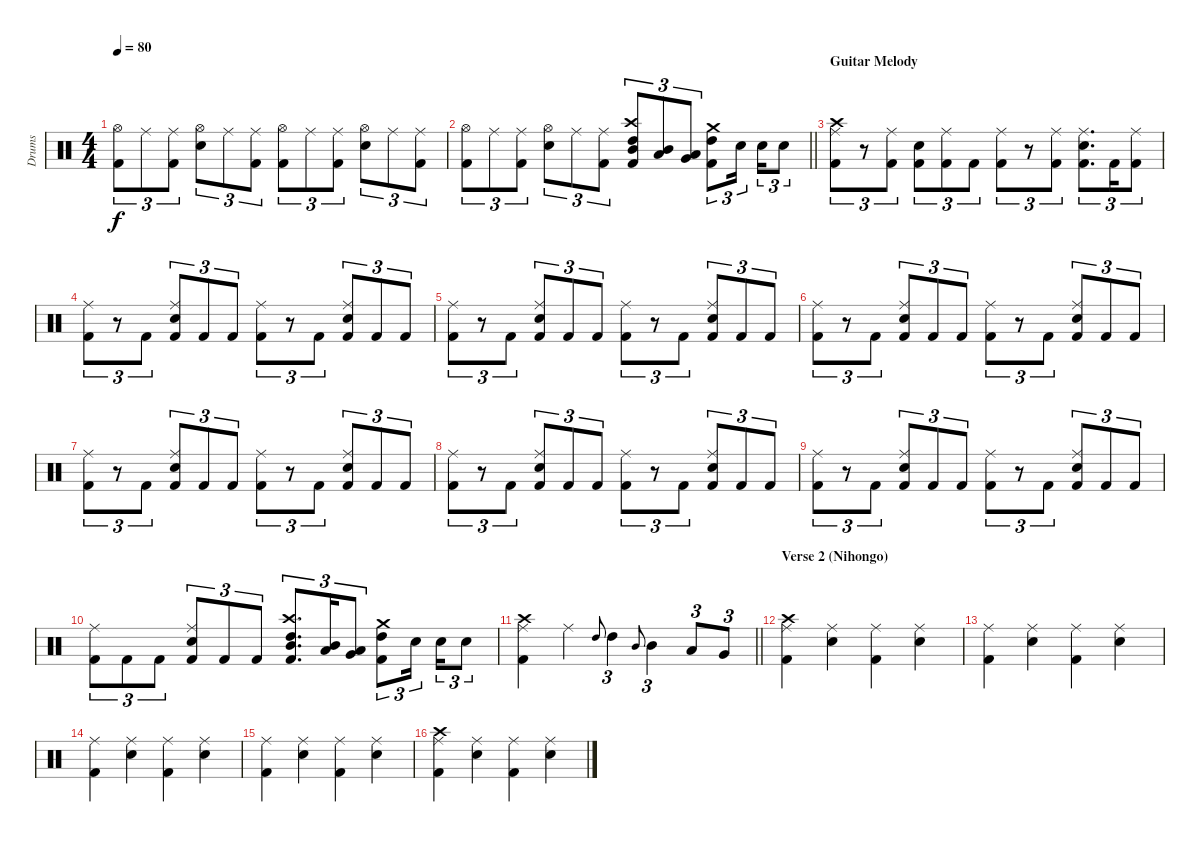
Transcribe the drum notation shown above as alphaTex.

\track ("Drums" "Drums") {instrument percussion}
\staff {score}
\articulation defaults
\ts (4 4)
\tempo 80
\clef neutral
\ks c
("Hi-Hat (open)" "Kick (hit) 2").8{tu (3 2) dy f} "Ride (middle)".8{tu (3 2)} ("Ride (middle)" "Kick (hit) 2").8{tu (3 2)} ("Hi-Hat (open)" "Snare (hit) 2").8{tu (3 2)} "Ride (middle)".8{tu (3 2)} ("Ride (middle)" "Kick (hit) 2").8{tu (3 2)} ("Hi-Hat (open)" "Kick (hit) 2").8{tu (3 2)} "Ride (middle)".8{tu (3 2)} ("Ride (middle)" "Kick (hit) 2").8{tu (3 2)} ("Hi-Hat (open)" "Snare (hit) 2").8{tu (3 2)} "Ride (middle)".8{tu (3 2)} ("Ride (middle)" "Kick (hit) 2").8{tu (3 2)} |
\barLineRight lightlight
("Hi-Hat (open)" "Kick (hit) 2").8{tu (3 2)} "Ride (middle)".8{tu (3 2)} ("Ride (middle)" "Kick (hit) 2").8{tu (3 2)} ("Hi-Hat (open)" "Snare (hit) 2").8{tu (3 2)} "Ride (middle)".8{tu (3 2)} ("Ride (middle)" "Kick (hit) 2").8{tu (3 2)} ("Crash high (hit)" "High Tom (hit)" "Mid Tom (hit)" "Kick (hit) 2").8{tu (3 2)} ("Mid Tom (hit)" "Low Tom (hit)").8{tu (3 2)} ("Low Tom (hit)" "Very Low Tom (hit)").8{tu (3 2)} ("Crash medium (hit)" "High Tom (hit)" "Kick (hit) 2").8{tu (3 2)} "Snare (hit) 2".16{tu (3 2) beam splitsecondary} "Snare (hit) 2".16{tu (3 2)} "Snare (hit) 2".8{tu (3 2)} |
\section ("" "Guitar Melody")
("Crash high (hit)" "Ride (middle)" "Kick (hit) 2").8{tu (3 2)} r.8{tu (3 2)} ("Ride (middle)" "Kick (hit) 2").8{tu (3 2)} ("Snare (hit) 2" "Kick (hit) 2").8{tu (3 2)} ("Ride (middle)" "Kick (hit) 2").8{tu (3 2)} "Kick (hit) 2".8{tu (3 2)} ("Ride (middle)" "Kick (hit) 2").8{tu (3 2)} r.8{tu (3 2)} ("Ride (middle)" "Kick (hit) 2").8{tu (3 2)} ("Ride (middle)" "Snare (hit) 2" "Kick (hit) 2").8{d tu (3 2)} "Kick (hit) 2".16{tu (3 2)} ("Ride (middle)" "Kick (hit) 2").8{tu (3 2)} |
("Ride (middle)" "Kick (hit) 2").8{tu (3 2)} r.8{tu (3 2)} "Kick (hit) 2".8{tu (3 2)} ("Ride (middle)" "Snare (hit) 2" "Kick (hit) 2").8{tu (3 2)} "Kick (hit) 2".8{tu (3 2)} "Kick (hit) 2".8{tu (3 2)} ("Ride (middle)" "Kick (hit) 2").8{tu (3 2)} r.8{tu (3 2)} "Kick (hit) 2".8{tu (3 2)} ("Ride (middle)" "Snare (hit) 2" "Kick (hit) 2").8{tu (3 2)} "Kick (hit) 2".8{tu (3 2)} "Kick (hit) 2".8{tu (3 2)} |
("Ride (middle)" "Kick (hit) 2").8{tu (3 2)} r.8{tu (3 2)} "Kick (hit) 2".8{tu (3 2)} ("Ride (middle)" "Snare (hit) 2" "Kick (hit) 2").8{tu (3 2)} "Kick (hit) 2".8{tu (3 2)} "Kick (hit) 2".8{tu (3 2)} ("Ride (middle)" "Kick (hit) 2").8{tu (3 2)} r.8{tu (3 2)} "Kick (hit) 2".8{tu (3 2)} ("Ride (middle)" "Snare (hit) 2" "Kick (hit) 2").8{tu (3 2)} "Kick (hit) 2".8{tu (3 2)} "Kick (hit) 2".8{tu (3 2)} |
("Ride (middle)" "Kick (hit) 2").8{tu (3 2)} r.8{tu (3 2)} "Kick (hit) 2".8{tu (3 2)} ("Ride (middle)" "Snare (hit) 2" "Kick (hit) 2").8{tu (3 2)} "Kick (hit) 2".8{tu (3 2)} "Kick (hit) 2".8{tu (3 2)} ("Ride (middle)" "Kick (hit) 2").8{tu (3 2)} r.8{tu (3 2)} "Kick (hit) 2".8{tu (3 2)} ("Ride (middle)" "Snare (hit) 2" "Kick (hit) 2").8{tu (3 2)} "Kick (hit) 2".8{tu (3 2)} "Kick (hit) 2".8{tu (3 2)} |
("Ride (middle)" "Kick (hit) 2").8{tu (3 2)} r.8{tu (3 2)} "Kick (hit) 2".8{tu (3 2)} ("Ride (middle)" "Snare (hit) 2" "Kick (hit) 2").8{tu (3 2)} "Kick (hit) 2".8{tu (3 2)} "Kick (hit) 2".8{tu (3 2)} ("Ride (middle)" "Kick (hit) 2").8{tu (3 2)} r.8{tu (3 2)} "Kick (hit) 2".8{tu (3 2)} ("Ride (middle)" "Snare (hit) 2" "Kick (hit) 2").8{tu (3 2)} "Kick (hit) 2".8{tu (3 2)} "Kick (hit) 2".8{tu (3 2)} |
("Ride (middle)" "Kick (hit) 2").8{tu (3 2)} r.8{tu (3 2)} "Kick (hit) 2".8{tu (3 2)} ("Ride (middle)" "Snare (hit) 2" "Kick (hit) 2").8{tu (3 2)} "Kick (hit) 2".8{tu (3 2)} "Kick (hit) 2".8{tu (3 2)} ("Ride (middle)" "Kick (hit) 2").8{tu (3 2)} r.8{tu (3 2)} "Kick (hit) 2".8{tu (3 2)} ("Ride (middle)" "Snare (hit) 2" "Kick (hit) 2").8{tu (3 2)} "Kick (hit) 2".8{tu (3 2)} "Kick (hit) 2".8{tu (3 2)} |
("Ride (middle)" "Kick (hit) 2").8{tu (3 2)} r.8{tu (3 2)} "Kick (hit) 2".8{tu (3 2)} ("Ride (middle)" "Snare (hit) 2" "Kick (hit) 2").8{tu (3 2)} "Kick (hit) 2".8{tu (3 2)} "Kick (hit) 2".8{tu (3 2)} ("Ride (middle)" "Kick (hit) 2").8{tu (3 2)} r.8{tu (3 2)} "Kick (hit) 2".8{tu (3 2)} ("Ride (middle)" "Snare (hit) 2" "Kick (hit) 2").8{tu (3 2)} "Kick (hit) 2".8{tu (3 2)} "Kick (hit) 2".8{tu (3 2)} |
("Ride (middle)" "Kick (hit) 2").8{tu (3 2)} "Kick (hit) 2".8{tu (3 2)} "Kick (hit) 2".8{tu (3 2)} ("Ride (middle)" "Snare (hit) 2" "Kick (hit) 2").8{tu (3 2)} "Kick (hit) 2".8{tu (3 2)} "Kick (hit) 2".8{tu (3 2)} ("Crash high (hit)" "High Tom (hit)" "Mid Tom (hit)" "Kick (hit) 2").8{d tu (3 2)} ("Mid Tom (hit)" "Low Tom (hit)").16{tu (3 2)} ("Low Tom (hit)" "Very Low Tom (hit)").8{tu (3 2)} ("Crash medium (hit)" "High Tom (hit)" "Kick (hit) 2").8{tu (3 2)} "Snare (hit) 2".16{tu (3 2) beam splitsecondary} "Snare (hit) 2".16{tu (3 2)} "Snare (hit) 2".8{tu (3 2)} |
\barLineRight lightlight
("Crash high (hit)" "Ride (middle)" "Kick (hit) 2").4 "Ride (middle)".4 "High Tom (hit)".8{gr onbeat} "High Tom (hit)".4{tu (3 2)} "Mid Tom (hit)".8{gr onbeat} "Mid Tom (hit)".4{tu (3 2)} "Low Tom (hit)".8{tu (3 2)} "Very Low Tom (hit)".8{tu (3 2)} |
\section ("" "Verse 2 (Nihongo)")
("Crash high (hit)" "Ride (middle)" "Kick (hit) 2").4 ("Ride (middle)" "Snare (hit) 2").4 ("Ride (middle)" "Kick (hit) 2").4 ("Ride (middle)" "Snare (hit) 2").4 |
("Ride (middle)" "Kick (hit) 2").4 ("Ride (middle)" "Snare (hit) 2").4 ("Ride (middle)" "Kick (hit) 2").4 ("Ride (middle)" "Snare (hit) 2").4 |
("Ride (middle)" "Kick (hit) 2").4 ("Ride (middle)" "Snare (hit) 2").4 ("Ride (middle)" "Kick (hit) 2").4 ("Ride (middle)" "Snare (hit) 2").4 |
("Ride (middle)" "Kick (hit) 2").4 ("Ride (middle)" "Snare (hit) 2").4 ("Ride (middle)" "Kick (hit) 2").4 ("Ride (middle)" "Snare (hit) 2").4 |
("Crash high (hit)" "Ride (middle)" "Kick (hit) 2").4 ("Ride (middle)" "Snare (hit) 2").4 ("Ride (middle)" "Kick (hit) 2").4 ("Ride (middle)" "Snare (hit) 2").4
